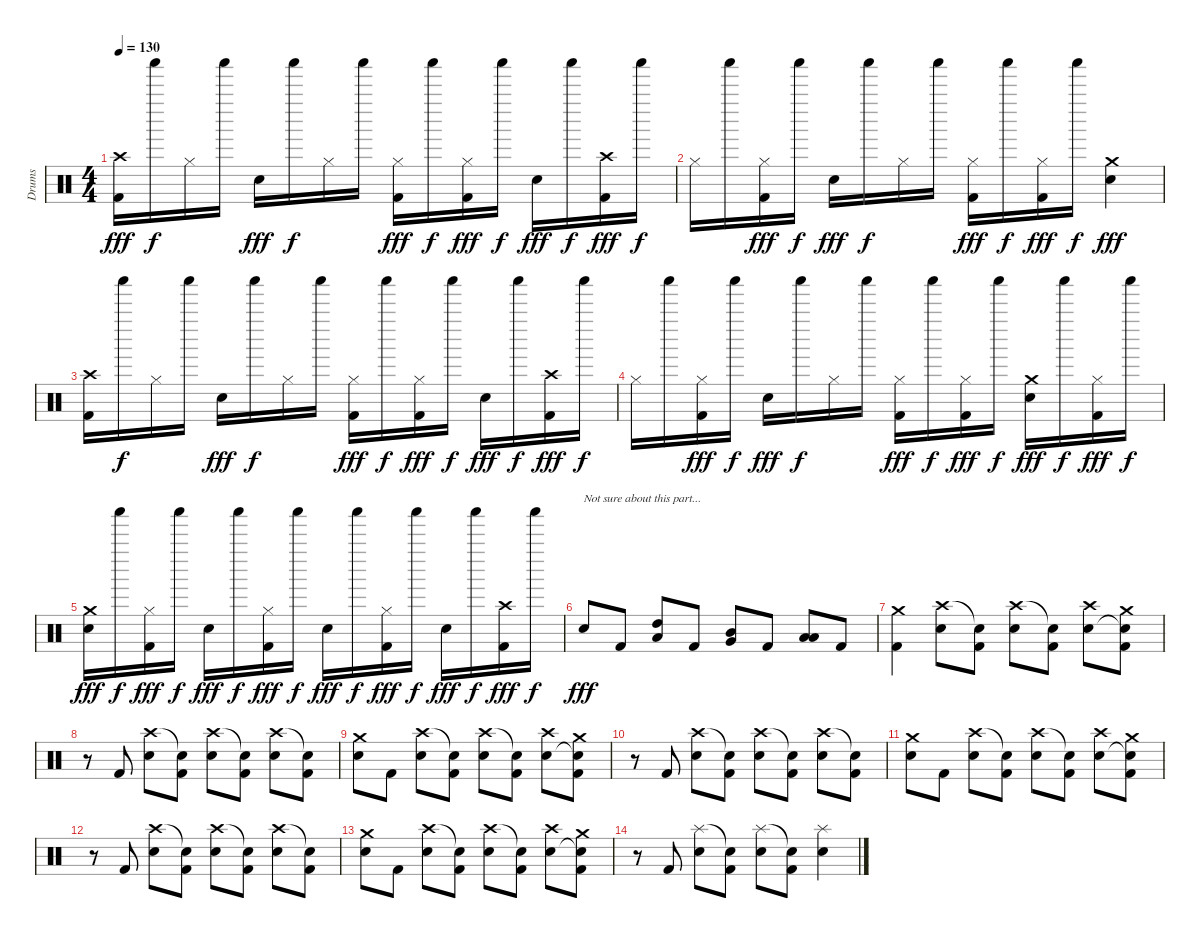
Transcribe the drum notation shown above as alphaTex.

\track ("Drums" "Drums") {instrument percussion}
\staff {score}
\articulation defaults
\ts (4 4)
\tempo 130
\clef neutral
\ks c
("Crash high (hit)" "Kick (hit) 2").16{dy fff} "Shaker (hit)".16{dy f} "Hi-Hat (closed)".16 "Shaker (hit)".16 "Snare (hit) 2".16{dy fff} "Shaker (hit)".16{dy f} "Hi-Hat (closed)".16 "Shaker (hit)".16 ("Hi-Hat (closed)" "Kick (hit) 2").16{dy fff} "Shaker (hit)".16{dy f} ("Hi-Hat (closed)" "Kick (hit) 2").16{dy fff} "Shaker (hit)".16{dy f} "Snare (hit) 2".16{dy fff} "Shaker (hit)".16{dy f} ("Crash high (hit)" "Kick (hit) 2").16{dy fff} "Shaker (hit)".16{dy f} |
"Hi-Hat (closed)".16 "Shaker (hit)".16 ("Hi-Hat (closed)" "Kick (hit) 2").16{dy fff} "Shaker (hit)".16{dy f} "Snare (hit) 2".16{dy fff} "Shaker (hit)".16{dy f} "Hi-Hat (closed)".16 "Shaker (hit)".16 ("Hi-Hat (closed)" "Kick (hit) 2").16{dy fff} "Shaker (hit)".16{dy f} ("Hi-Hat (closed)" "Kick (hit) 2").16{dy fff} "Shaker (hit)".16{dy f} ("Crash medium (hit)" "Snare (hit) 2").4{dy fff} |
("Crash high (hit)" "Kick (hit) 2").16 "Shaker (hit)".16{dy f} "Hi-Hat (closed)".16 "Shaker (hit)".16 "Snare (hit) 2".16{dy fff} "Shaker (hit)".16{dy f} "Hi-Hat (closed)".16 "Shaker (hit)".16 ("Hi-Hat (closed)" "Kick (hit) 2").16{dy fff} "Shaker (hit)".16{dy f} ("Hi-Hat (closed)" "Kick (hit) 2").16{dy fff} "Shaker (hit)".16{dy f} "Snare (hit) 2".16{dy fff} "Shaker (hit)".16{dy f} ("Crash high (hit)" "Kick (hit) 2").16{dy fff} "Shaker (hit)".16{dy f} |
"Hi-Hat (closed)".16 "Shaker (hit)".16 ("Hi-Hat (closed)" "Kick (hit) 2").16{dy fff} "Shaker (hit)".16{dy f} "Snare (hit) 2".16{dy fff} "Shaker (hit)".16{dy f} "Hi-Hat (closed)".16 "Shaker (hit)".16 ("Hi-Hat (closed)" "Kick (hit) 2").16{dy fff} "Shaker (hit)".16{dy f} ("Hi-Hat (closed)" "Kick (hit) 2").16{dy fff} "Shaker (hit)".16{dy f} ("Crash medium (hit)" "Snare (hit) 2").16{dy fff} "Shaker (hit)".16{dy f} ("Hi-Hat (closed)" "Kick (hit) 2").16{dy fff} "Shaker (hit)".16{dy f} |
("Crash medium (hit)" "Snare (hit) 2").16{dy fff} "Shaker (hit)".16{dy f} ("Hi-Hat (closed)" "Kick (hit) 2").16{dy fff} "Shaker (hit)".16{dy f} "Snare (hit) 2".16{dy fff} "Shaker (hit)".16{dy f} ("Hi-Hat (closed)" "Kick (hit) 2").16{dy fff} "Shaker (hit)".16{dy f} "Snare (hit) 2".16{dy fff} "Shaker (hit)".16{dy f} ("Hi-Hat (closed)" "Kick (hit) 2").16{dy fff} "Shaker (hit)".16{dy f} "Snare (hit) 2".16{dy fff} "Shaker (hit)".16{dy f} ("Crash high (hit)" "Kick (hit) 2").16{dy fff} "Shaker (hit)".16{dy f} |
"Snare (hit) 2".8{txt "Not sure about this part..." dy fff} "Kick (hit) 2".8 ("High Tom (hit)" "Low Tom (hit)").8 "Kick (hit) 2".8 ("Mid Tom (hit)" "Very Low Tom (hit)").8 "Kick (hit) 2".8 ("Low Tom (hit)" "Low Floor Tom (hit)").8 "Kick (hit) 2".8 |
("Crash medium (hit)" "Kick (hit) 2").4 ("Crash high (hit)" "Snare (hit) 2").8 ("Snare (hit)"{t} "Kick (hit) 2").8 ("Crash high (hit)" "Snare (hit) 2").8 ("Snare (hit)"{t} "Kick (hit) 2").8 ("Crash high (hit)" "Snare (hit) 2").8 ("Crash medium (hit)" "Snare (hit)"{t} "Kick (hit) 2").8 |
r.8 "Kick (hit) 2".8 ("Crash high (hit)" "Snare (hit) 2").8 ("Snare (hit)"{t} "Kick (hit) 2").8 ("Crash high (hit)" "Snare (hit) 2").8 ("Snare (hit)"{t} "Kick (hit) 2").8 ("Crash high (hit)" "Snare (hit) 2").8 ("Snare (hit)"{t} "Kick (hit) 2").8 |
("Crash medium (hit)" "Snare (hit) 2").8 "Kick (hit) 2".8 ("Crash high (hit)" "Snare (hit) 2").8 ("Snare (hit)"{t} "Kick (hit) 2").8 ("Crash high (hit)" "Snare (hit) 2").8 ("Snare (hit)"{t} "Kick (hit) 2").8 ("Crash high (hit)" "Snare (hit) 2").8 ("Crash medium (hit)" "Snare (hit)"{t} "Kick (hit) 2").8 |
r.8 "Kick (hit) 2".8 ("Crash high (hit)" "Snare (hit) 2").8 ("Snare (hit)"{t} "Kick (hit) 2").8 ("Crash high (hit)" "Snare (hit) 2").8 ("Snare (hit)"{t} "Kick (hit) 2").8 ("Crash high (hit)" "Snare (hit) 2").8 ("Snare (hit)"{t} "Kick (hit) 2").8 |
("Crash medium (hit)" "Snare (hit) 2").8 "Kick (hit) 2".8 ("Crash high (hit)" "Snare (hit) 2").8 ("Snare (hit)"{t} "Kick (hit) 2").8 ("Crash high (hit)" "Snare (hit) 2").8 ("Snare (hit)"{t} "Kick (hit) 2").8 ("Crash high (hit)" "Snare (hit) 2").8 ("Crash medium (hit)" "Snare (hit)"{t} "Kick (hit) 2").8 |
r.8 "Kick (hit) 2".8 ("Crash high (hit)" "Snare (hit) 2").8 ("Snare (hit)"{t} "Kick (hit) 2").8 ("Crash high (hit)" "Snare (hit) 2").8 ("Snare (hit)"{t} "Kick (hit) 2").8 ("Crash high (hit)" "Snare (hit) 2").8 ("Snare (hit)"{t} "Kick (hit) 2").8 |
("Crash medium (hit)" "Snare (hit) 2").8 "Kick (hit) 2".8 ("Crash high (hit)" "Snare (hit) 2").8 ("Snare (hit)"{t} "Kick (hit) 2").8 ("Crash high (hit)" "Snare (hit) 2").8 ("Snare (hit)"{t} "Kick (hit) 2").8 ("Crash high (hit)" "Snare (hit) 2").8 ("Crash medium (hit)" "Snare (hit)"{t} "Kick (hit) 2").8 |
r.8 "Kick (hit) 2".8 ("Splash (hit)" "Snare (hit) 2").8 ("Snare (hit)"{t} "Kick (hit) 2").8 ("Splash (hit)" "Snare (hit) 2").8 ("Snare (hit)"{t} "Kick (hit) 2").8 ("Splash (hit)" "Snare (hit) 2").4
